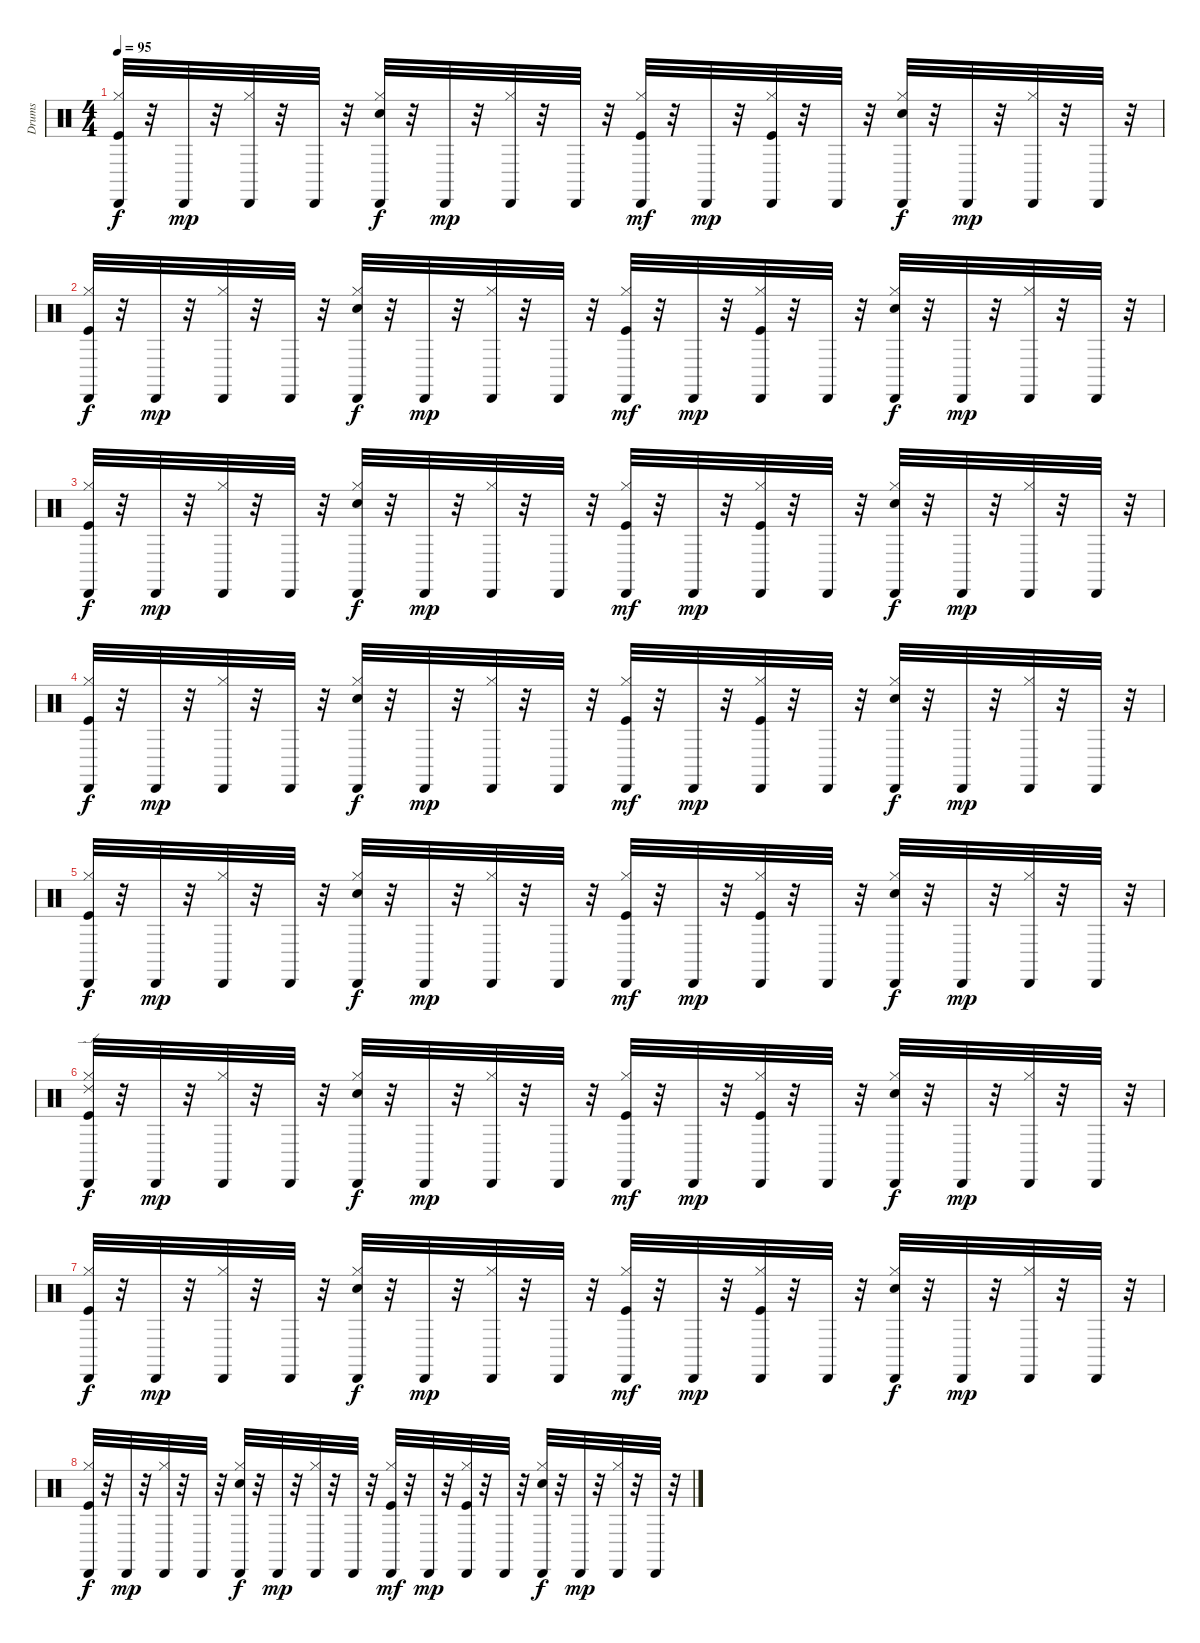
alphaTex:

\track ("Drums" "Drums") {instrument percussion}
\staff {score}
\articulation defaults
\ts (4 4)
\tempo 95
\clef neutral
\ks c
("Hi-Hat (closed)" "Kick (hit)" "Cabasa (hit)").32{dy f} r.32 "Cabasa (hit)".32{dy mp} r.32 ("Hi-Hat (closed)" "Cabasa (hit)").32 r.32 "Cabasa (hit)".32 r.32 ("Hi-Hat (closed)" "Electric Snare (hit)" "Cabasa (hit)").32{dy f} r.32 "Cabasa (hit)".32{dy mp} r.32 ("Hi-Hat (closed)" "Cabasa (hit)").32 r.32 "Cabasa (hit)".32 r.32 ("Hi-Hat (closed)" "Kick (hit)" "Cabasa (hit)").32{dy mf} r.32 "Cabasa (hit)".32{dy mp} r.32 ("Hi-Hat (closed)" "Kick (hit)" "Cabasa (hit)").32 r.32 "Cabasa (hit)".32 r.32 ("Hi-Hat (closed)" "Electric Snare (hit)" "Cabasa (hit)").32{dy f} r.32 "Cabasa (hit)".32{dy mp} r.32 ("Hi-Hat (closed)" "Cabasa (hit)").32 r.32 "Cabasa (hit)".32 r.32 |
("Kick (hit)" "Hi-Hat (closed)" "Cabasa (hit)").32{dy f} r.32 "Cabasa (hit)".32{dy mp} r.32 ("Hi-Hat (closed)" "Cabasa (hit)").32 r.32 "Cabasa (hit)".32 r.32 ("Hi-Hat (closed)" "Electric Snare (hit)" "Cabasa (hit)").32{dy f} r.32 "Cabasa (hit)".32{dy mp} r.32 ("Hi-Hat (closed)" "Cabasa (hit)").32 r.32 "Cabasa (hit)".32 r.32 ("Hi-Hat (closed)" "Kick (hit)" "Cabasa (hit)").32{dy mf} r.32 "Cabasa (hit)".32{dy mp} r.32 ("Hi-Hat (closed)" "Kick (hit)" "Cabasa (hit)").32 r.32 "Cabasa (hit)".32 r.32 ("Hi-Hat (closed)" "Electric Snare (hit)" "Cabasa (hit)").32{dy f} r.32 "Cabasa (hit)".32{dy mp} r.32 ("Hi-Hat (closed)" "Cabasa (hit)").32 r.32 "Cabasa (hit)".32 r.32 |
("Hi-Hat (closed)" "Kick (hit)" "Cabasa (hit)").32{dy f} r.32 "Cabasa (hit)".32{dy mp} r.32 ("Hi-Hat (closed)" "Cabasa (hit)").32 r.32 "Cabasa (hit)".32 r.32 ("Hi-Hat (closed)" "Electric Snare (hit)" "Cabasa (hit)").32{dy f} r.32 "Cabasa (hit)".32{dy mp} r.32 ("Hi-Hat (closed)" "Cabasa (hit)").32 r.32 "Cabasa (hit)".32 r.32 ("Hi-Hat (closed)" "Kick (hit)" "Cabasa (hit)").32{dy mf} r.32 "Cabasa (hit)".32{dy mp} r.32 ("Hi-Hat (closed)" "Kick (hit)" "Cabasa (hit)").32 r.32 "Cabasa (hit)".32 r.32 ("Hi-Hat (closed)" "Electric Snare (hit)" "Cabasa (hit)").32{dy f} r.32 "Cabasa (hit)".32{dy mp} r.32 ("Hi-Hat (closed)" "Cabasa (hit)").32 r.32 "Cabasa (hit)".32 r.32 |
("Kick (hit)" "Hi-Hat (closed)" "Cabasa (hit)").32{dy f} r.32 "Cabasa (hit)".32{dy mp} r.32 ("Hi-Hat (closed)" "Cabasa (hit)").32 r.32 "Cabasa (hit)".32 r.32 ("Hi-Hat (closed)" "Electric Snare (hit)" "Cabasa (hit)").32{dy f} r.32 "Cabasa (hit)".32{dy mp} r.32 ("Hi-Hat (closed)" "Cabasa (hit)").32 r.32 "Cabasa (hit)".32 r.32 ("Hi-Hat (closed)" "Kick (hit)" "Cabasa (hit)").32{dy mf} r.32 "Cabasa (hit)".32{dy mp} r.32 ("Hi-Hat (closed)" "Kick (hit)" "Cabasa (hit)").32 r.32 "Cabasa (hit)".32 r.32 ("Hi-Hat (closed)" "Electric Snare (hit)" "Cabasa (hit)").32{dy f} r.32 "Cabasa (hit)".32{dy mp} r.32 ("Hi-Hat (closed)" "Cabasa (hit)").32 r.32 "Cabasa (hit)".32 r.32 |
("Hi-Hat (closed)" "Kick (hit)" "Cabasa (hit)").32{dy f} r.32 "Cabasa (hit)".32{dy mp} r.32 ("Hi-Hat (closed)" "Cabasa (hit)").32 r.32 "Cabasa (hit)".32 r.32 ("Hi-Hat (closed)" "Electric Snare (hit)" "Cabasa (hit)").32{dy f} r.32 "Cabasa (hit)".32{dy mp} r.32 ("Hi-Hat (closed)" "Cabasa (hit)").32 r.32 "Cabasa (hit)".32 r.32 ("Hi-Hat (closed)" "Kick (hit)" "Cabasa (hit)").32{dy mf} r.32 "Cabasa (hit)".32{dy mp} r.32 ("Hi-Hat (closed)" "Kick (hit)" "Cabasa (hit)").32 r.32 "Cabasa (hit)".32 r.32 ("Hi-Hat (closed)" "Electric Snare (hit)" "Cabasa (hit)").32{dy f} r.32 "Cabasa (hit)".32{dy mp} r.32 ("Hi-Hat (closed)" "Cabasa (hit)").32 r.32 "Cabasa (hit)".32 r.32 |
("Kick (hit)" "Hi-Hat (closed)" "Ride (edge) 2" "Cabasa (hit)").32{dy f} r.32 "Cabasa (hit)".32{dy mp} r.32 ("Hi-Hat (closed)" "Cabasa (hit)").32 r.32 "Cabasa (hit)".32 r.32 ("Hi-Hat (closed)" "Electric Snare (hit)" "Cabasa (hit)").32{dy f} r.32 "Cabasa (hit)".32{dy mp} r.32 ("Hi-Hat (closed)" "Cabasa (hit)").32 r.32 "Cabasa (hit)".32 r.32 ("Hi-Hat (closed)" "Kick (hit)" "Cabasa (hit)").32{dy mf} r.32 "Cabasa (hit)".32{dy mp} r.32 ("Hi-Hat (closed)" "Kick (hit)" "Cabasa (hit)").32 r.32 "Cabasa (hit)".32 r.32 ("Hi-Hat (closed)" "Electric Snare (hit)" "Cabasa (hit)").32{dy f} r.32 "Cabasa (hit)".32{dy mp} r.32 ("Hi-Hat (closed)" "Cabasa (hit)").32 r.32 "Cabasa (hit)".32 r.32 |
("Hi-Hat (closed)" "Kick (hit)" "Cabasa (hit)").32{dy f} r.32 "Cabasa (hit)".32{dy mp} r.32 ("Hi-Hat (closed)" "Cabasa (hit)").32 r.32 "Cabasa (hit)".32 r.32 ("Hi-Hat (closed)" "Electric Snare (hit)" "Cabasa (hit)").32{dy f} r.32 "Cabasa (hit)".32{dy mp} r.32 ("Hi-Hat (closed)" "Cabasa (hit)").32 r.32 "Cabasa (hit)".32 r.32 ("Hi-Hat (closed)" "Kick (hit)" "Cabasa (hit)").32{dy mf} r.32 "Cabasa (hit)".32{dy mp} r.32 ("Hi-Hat (closed)" "Kick (hit)" "Cabasa (hit)").32 r.32 "Cabasa (hit)".32 r.32 ("Hi-Hat (closed)" "Electric Snare (hit)" "Cabasa (hit)").32{dy f} r.32 "Cabasa (hit)".32{dy mp} r.32 ("Hi-Hat (closed)" "Cabasa (hit)").32 r.32 "Cabasa (hit)".32 r.32 |
("Kick (hit)" "Hi-Hat (closed)" "Cabasa (hit)").32{dy f} r.32 "Cabasa (hit)".32{dy mp} r.32 ("Hi-Hat (closed)" "Cabasa (hit)").32 r.32 "Cabasa (hit)".32 r.32 ("Hi-Hat (closed)" "Electric Snare (hit)" "Cabasa (hit)").32{dy f} r.32 "Cabasa (hit)".32{dy mp} r.32 ("Hi-Hat (closed)" "Cabasa (hit)").32 r.32 "Cabasa (hit)".32 r.32 ("Hi-Hat (closed)" "Kick (hit)" "Cabasa (hit)").32{dy mf} r.32 "Cabasa (hit)".32{dy mp} r.32 ("Hi-Hat (closed)" "Kick (hit)" "Cabasa (hit)").32 r.32 "Cabasa (hit)".32 r.32 ("Hi-Hat (closed)" "Electric Snare (hit)" "Cabasa (hit)").32{dy f} r.32 "Cabasa (hit)".32{dy mp} r.32 ("Hi-Hat (closed)" "Cabasa (hit)").32 r.32 "Cabasa (hit)".32 r.32
